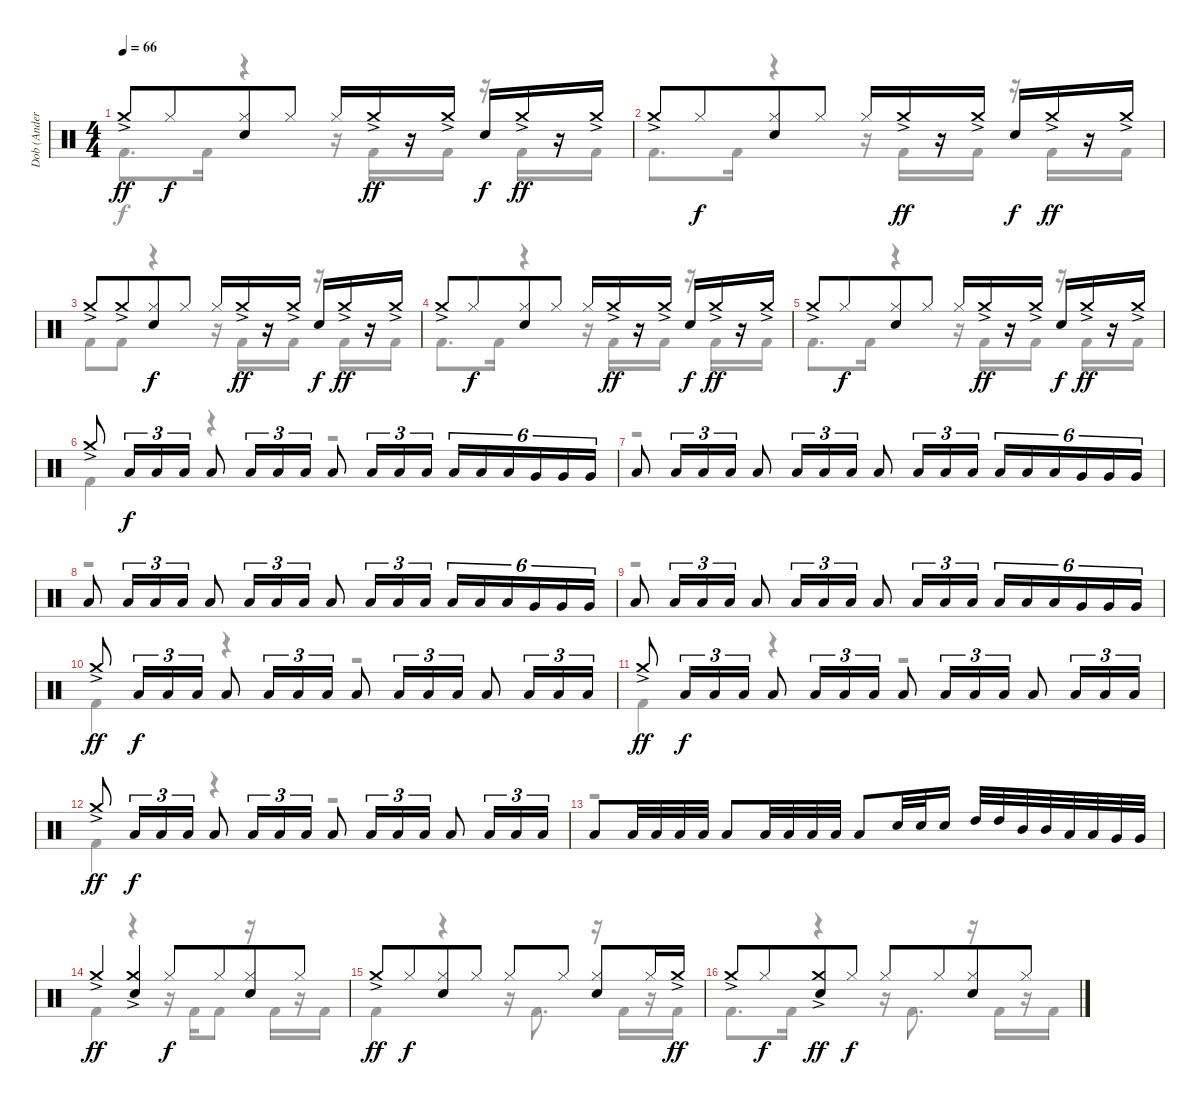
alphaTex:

\track ("Dob (Anders Johansson)" "Dob (Ander") {instrument percussion}
\staff {score}
\articulation defaults
\voice
\ts (4 4)
\tempo 66
\clef neutral
\ks c "Crash medium (hit)"{ac}.8{dy ff} "Hi-Hat (closed)".8{dy f beam merge}
("Hi-Hat (closed)" "Electric Snare (hit)").8 "Hi-Hat (closed)".8 "Hi-Hat (closed)".16 "Crash medium (hit)"{ac}.16{dy ff} r.16 "Crash medium (hit)"{ac}.16 "Electric Snare (hit)".16{dy f} "Crash medium (hit)"{ac}.16{dy ff} r.16 "Crash medium (hit)"{ac}.16 |
"Crash medium (hit)"{ac}.8 "Hi-Hat (closed)".8{dy f beam merge} ("Hi-Hat (closed)" "Electric Snare (hit)").8 "Hi-Hat (closed)".8 "Hi-Hat (closed)".16 "Crash medium (hit)"{ac}.16{dy ff} r.16 "Crash medium (hit)"{ac}.16 "Electric Snare (hit)".16{dy f} "Crash medium (hit)"{ac}.16{dy ff} r.16 "Crash medium (hit)"{ac}.16 |
"Crash medium (hit)"{ac}.8 "Crash medium (hit)"{ac}.8{beam merge} ("Hi-Hat (closed)" "Electric Snare (hit)").8{dy f} "Hi-Hat (closed)".8 "Hi-Hat (closed)".16 "Crash medium (hit)"{ac}.16{dy ff} r.16 "Crash medium (hit)"{ac}.16 "Electric Snare (hit)".16{dy f} "Crash medium (hit)"{ac}.16{dy ff} r.16 "Crash medium (hit)"{ac}.16 |
"Crash medium (hit)"{ac}.8 "Hi-Hat (closed)".8{dy f beam merge} ("Hi-Hat (closed)" "Electric Snare (hit)").8 "Hi-Hat (closed)".8 "Hi-Hat (closed)".16 "Crash medium (hit)"{ac}.16{dy ff} r.16 "Crash medium (hit)"{ac}.16 "Electric Snare (hit)".16{dy f} "Crash medium (hit)"{ac}.16{dy ff} r.16 "Crash medium (hit)"{ac}.16 |
"Crash medium (hit)"{ac}.8 "Hi-Hat (closed)".8{dy f beam merge} ("Hi-Hat (closed)" "Electric Snare (hit)").8 "Hi-Hat (closed)".8 "Hi-Hat (closed)".16 "Crash medium (hit)"{ac}.16{dy ff} r.16 "Crash medium (hit)"{ac}.16 "Electric Snare (hit)".16{dy f} "Crash medium (hit)"{ac}.16{dy ff} r.16 "Crash medium (hit)"{ac}.16 |
"Crash medium (hit)"{ac}.8 "Low Tom (hit)".16{tu (3 2) dy f} "Low Tom (hit)".16{tu (3 2)} "Low Tom (hit)".16{tu (3 2)} "Low Tom (hit)".8 "Low Tom (hit)".16{tu (3 2)} "Low Tom (hit)".16{tu (3 2)} "Low Tom (hit)".16{tu (3 2)} "Low Tom (hit)".8 "Low Tom (hit)".16{tu (3 2)} "Low Tom (hit)".16{tu (3 2)} "Low Tom (hit)".16{tu (3 2)} "Low Tom (hit)".16{tu (6 4)} "Low Tom (hit)".16{tu (6 4)} "Low Tom (hit)".16{tu (6 4)} "Very Low Tom (hit)".16{tu (6 4)} "Very Low Tom (hit)".16{tu (6 4)} "Very Low Tom (hit)".16{tu (6 4)} |
"Low Tom (hit)".8 "Low Tom (hit)".16{tu (3 2)} "Low Tom (hit)".16{tu (3 2)} "Low Tom (hit)".16{tu (3 2)} "Low Tom (hit)".8 "Low Tom (hit)".16{tu (3 2)} "Low Tom (hit)".16{tu (3 2)} "Low Tom (hit)".16{tu (3 2)} "Low Tom (hit)".8 "Low Tom (hit)".16{tu (3 2)} "Low Tom (hit)".16{tu (3 2)} "Low Tom (hit)".16{tu (3 2)} "Low Tom (hit)".16{tu (6 4)} "Low Tom (hit)".16{tu (6 4)} "Low Tom (hit)".16{tu (6 4)} "Very Low Tom (hit)".16{tu (6 4)} "Very Low Tom (hit)".16{tu (6 4)} "Very Low Tom (hit)".16{tu (6 4)} |
"Low Tom (hit)".8 "Low Tom (hit)".16{tu (3 2)} "Low Tom (hit)".16{tu (3 2)} "Low Tom (hit)".16{tu (3 2)} "Low Tom (hit)".8 "Low Tom (hit)".16{tu (3 2)} "Low Tom (hit)".16{tu (3 2)} "Low Tom (hit)".16{tu (3 2)} "Low Tom (hit)".8 "Low Tom (hit)".16{tu (3 2)} "Low Tom (hit)".16{tu (3 2)} "Low Tom (hit)".16{tu (3 2)} "Low Tom (hit)".16{tu (6 4)} "Low Tom (hit)".16{tu (6 4)} "Low Tom (hit)".16{tu (6 4)} "Very Low Tom (hit)".16{tu (6 4)} "Very Low Tom (hit)".16{tu (6 4)} "Very Low Tom (hit)".16{tu (6 4)} |
"Low Tom (hit)".8 "Low Tom (hit)".16{tu (3 2)} "Low Tom (hit)".16{tu (3 2)} "Low Tom (hit)".16{tu (3 2)} "Low Tom (hit)".8 "Low Tom (hit)".16{tu (3 2)} "Low Tom (hit)".16{tu (3 2)} "Low Tom (hit)".16{tu (3 2)} "Low Tom (hit)".8 "Low Tom (hit)".16{tu (3 2)} "Low Tom (hit)".16{tu (3 2)} "Low Tom (hit)".16{tu (3 2)} "Low Tom (hit)".16{tu (6 4)} "Low Tom (hit)".16{tu (6 4)} "Low Tom (hit)".16{tu (6 4)} "Very Low Tom (hit)".16{tu (6 4)} "Very Low Tom (hit)".16{tu (6 4)} "Very Low Tom (hit)".16{tu (6 4)} |
"Crash medium (hit)"{ac}.8{dy ff} "Low Tom (hit)".16{tu (3 2) dy f} "Low Tom (hit)".16{tu (3 2)} "Low Tom (hit)".16{tu (3 2)} "Low Tom (hit)".8 "Low Tom (hit)".16{tu (3 2)} "Low Tom (hit)".16{tu (3 2)} "Low Tom (hit)".16{tu (3 2)} "Low Tom (hit)".8 "Low Tom (hit)".16{tu (3 2)} "Low Tom (hit)".16{tu (3 2)} "Low Tom (hit)".16{tu (3 2)} "Low Tom (hit)".8 "Low Tom (hit)".16{tu (3 2)} "Low Tom (hit)".16{tu (3 2)} "Low Tom (hit)".16{tu (3 2)} |
"Crash medium (hit)"{ac}.8{dy ff} "Low Tom (hit)".16{tu (3 2) dy f} "Low Tom (hit)".16{tu (3 2)} "Low Tom (hit)".16{tu (3 2)} "Low Tom (hit)".8 "Low Tom (hit)".16{tu (3 2)} "Low Tom (hit)".16{tu (3 2)} "Low Tom (hit)".16{tu (3 2)} "Low Tom (hit)".8 "Low Tom (hit)".16{tu (3 2)} "Low Tom (hit)".16{tu (3 2)} "Low Tom (hit)".16{tu (3 2)} "Low Tom (hit)".8 "Low Tom (hit)".16{tu (3 2)} "Low Tom (hit)".16{tu (3 2)} "Low Tom (hit)".16{tu (3 2)} |
"Crash medium (hit)"{ac}.8{dy ff} "Low Tom (hit)".16{tu (3 2) dy f} "Low Tom (hit)".16{tu (3 2)} "Low Tom (hit)".16{tu (3 2)} "Low Tom (hit)".8 "Low Tom (hit)".16{tu (3 2)} "Low Tom (hit)".16{tu (3 2)} "Low Tom (hit)".16{tu (3 2)} "Low Tom (hit)".8 "Low Tom (hit)".16{tu (3 2)} "Low Tom (hit)".16{tu (3 2)} "Low Tom (hit)".16{tu (3 2)} "Low Tom (hit)".8 "Low Tom (hit)".16{tu (3 2)} "Low Tom (hit)".16{tu (3 2)} "Low Tom (hit)".16{tu (3 2)} |
"Low Tom (hit)".8 "Low Tom (hit)".32 "Low Tom (hit)".32 "Low Tom (hit)".32 "Low Tom (hit)".32 "Low Tom (hit)".8 "Low Tom (hit)".32 "Low Tom (hit)".32 "Low Tom (hit)".32 "Low Tom (hit)".32 "Low Tom (hit)".8 "Electric Snare (hit)".32 "Electric Snare (hit)".32 "Electric Snare (hit)".16 "High Tom (hit)".32 "High Tom (hit)".32 "Mid Tom (hit)".32 "Mid Tom (hit)".32 "Low Tom (hit)".32 "Low Tom (hit)".32 "Very Low Tom (hit)".32 "Very Low Tom (hit)".32 |
"Crash medium (hit)"{ac}.4{dy ff} ("Crash medium (hit)"{ac} "Electric Snare (hit)").4 "Hi-Hat (closed)".8{dy f} "Hi-Hat (closed)".8{beam merge} ("Hi-Hat (closed)" "Electric Snare (hit)").8 "Hi-Hat (closed)".8 |
"Crash medium (hit)"{ac}.8{dy ff} "Hi-Hat (closed)".8{dy f beam merge} ("Hi-Hat (closed)" "Electric Snare (hit)").8 "Hi-Hat (closed)".8 "Hi-Hat (closed)".8 "Hi-Hat (closed)".8 ("Hi-Hat (closed)" "Electric Snare (hit)").8 "Hi-Hat (closed)".16 "Crash medium (hit)"{ac}.16{dy ff} |
"Crash medium (hit)"{ac}.8 "Hi-Hat (closed)".8{dy f beam merge} ("Crash medium (hit)"{ac} "Electric Snare (hit)").8{dy ff} "Hi-Hat (closed)".8{dy f} "Hi-Hat (closed)".8 "Hi-Hat (closed)".8{beam merge} ("Hi-Hat (closed)" "Electric Snare (hit)").8 "Hi-Hat (closed)".8
\voice
\clef neutral
\ottava regular
\simile none
\ks c "Kick (hit) 2".8{d dy f} "Kick (hit) 2".16
r.4 r.16 "Kick (hit) 2".16 r.16 "Kick (hit) 2".16 r.16 "Kick (hit) 2".16 r.16 "Kick (hit) 2".16 |
"Kick (hit) 2".8{d} "Kick (hit) 2".16 r.4 r.16 "Kick (hit) 2".16 r.16 "Kick (hit) 2".16 r.16 "Kick (hit) 2".16 r.16 "Kick (hit) 2".16 |
"Kick (hit) 2".8 "Kick (hit) 2".8 r.4 r.16 "Kick (hit) 2".16 r.16 "Kick (hit) 2".16 r.16 "Kick (hit) 2".16 r.16 "Kick (hit) 2".16 |
"Kick (hit) 2".8{d} "Kick (hit) 2".16 r.4 r.16 "Kick (hit) 2".16 r.16 "Kick (hit) 2".16 r.16 "Kick (hit) 2".16 r.16 "Kick (hit) 2".16 |
"Kick (hit) 2".8{d} "Kick (hit) 2".16 r.4 r.16 "Kick (hit) 2".16 r.16 "Kick (hit) 2".16 r.16 "Kick (hit) 2".16 r.16 "Kick (hit) 2".16 |
"Kick (hit) 2".4 r.4 r.2 |
r.1 |
r.1 |
r.1 |
"Kick (hit) 2".4 r.4 r.2 |
"Kick (hit) 2".4 r.4 r.2 |
"Kick (hit) 2".4 r.4 r.2 |
r.1 |
"Kick (hit) 2".4 r.4 r.16 "Kick (hit) 2".16 "Kick (hit) 2".8 r.16 "Kick (hit) 2".16 r.16 "Kick (hit) 2".16 |
"Kick (hit) 2".4 r.4 r.16 "Kick (hit) 2".8{d} r.16 "Kick (hit) 2".16 r.16 "Kick (hit) 2".16 |
"Kick (hit) 2".8{d} "Kick (hit) 2".16 r.4 r.16 "Kick (hit) 2".8{d} r.16 "Kick (hit) 2".16 r.16 "Kick (hit) 2".16
